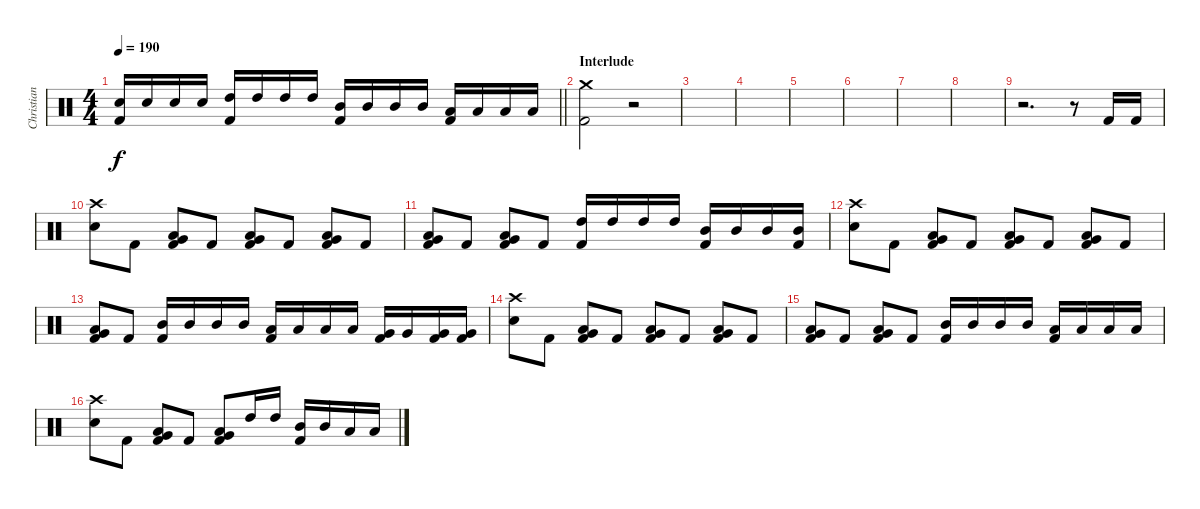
\track ("Christian" "Christian") {instrument percussion}
\staff {score}
\articulation defaults
\ts (4 4)
\tempo 190
\clef neutral
\barLineRight lightlight
\ks c
("Electric Snare (hit)" "Kick (hit) 2").16{dy f} "Electric Snare (hit)".16 "Electric Snare (hit)".16 "Electric Snare (hit)".16 ("High Tom (hit)" "Kick (hit) 2").16 "High Tom (hit)".16 "High Tom (hit)".16 "High Tom (hit)".16 ("Mid Tom (hit)" "Kick (hit) 2").16 "Mid Tom (hit)".16 "Mid Tom (hit)".16 "Mid Tom (hit)".16 ("Low Tom (hit)" "Kick (hit) 2").16 "Low Tom (hit)".16 "Low Tom (hit)".16 "Low Tom (hit)".16 |
\section ("" "Interlude")
("Crash medium (hit)" "Kick (hit) 2").2 r.2 |
|
|
|
|
|
|
r.2{d} r.8 "Kick (hit) 2".16 "Kick (hit) 2".16 |
("Crash high (hit)" "Electric Snare (hit)").8 "Kick (hit) 2".8 ("Low Tom (hit)" "Very Low Tom (hit)" "Kick (hit) 2").8 "Kick (hit) 2".8 ("Low Tom (hit)" "Very Low Tom (hit)" "Kick (hit) 2").8 "Kick (hit) 2".8 ("Low Tom (hit)" "Very Low Tom (hit)" "Kick (hit) 2").8 "Kick (hit) 2".8 |
("Low Tom (hit)" "Very Low Tom (hit)" "Kick (hit) 2").8 "Kick (hit) 2".8 ("Low Tom (hit)" "Very Low Tom (hit)" "Kick (hit) 2").8 "Kick (hit) 2".8 ("High Tom (hit)" "Kick (hit) 2").16 "High Tom (hit)".16 "High Tom (hit)".16 "High Tom (hit)".16 ("Mid Tom (hit)" "Kick (hit) 2").16 "Mid Tom (hit)".16 "Mid Tom (hit)".16 ("Mid Tom (hit)" "Kick (hit) 2").16 |
("Crash high (hit)" "Electric Snare (hit)").8 "Kick (hit) 2".8 ("Low Tom (hit)" "Very Low Tom (hit)" "Kick (hit) 2").8 "Kick (hit) 2".8 ("Low Tom (hit)" "Very Low Tom (hit)" "Kick (hit) 2").8 "Kick (hit) 2".8 ("Low Tom (hit)" "Very Low Tom (hit)" "Kick (hit) 2").8 "Kick (hit) 2".8 |
("Low Tom (hit)" "Very Low Tom (hit)" "Kick (hit) 2").8 "Kick (hit) 2".8 ("Mid Tom (hit)" "Kick (hit) 2").16 "Mid Tom (hit)".16 "Mid Tom (hit)".16 "Mid Tom (hit)".16 ("Low Tom (hit)" "Kick (hit) 2").16 "Low Tom (hit)".16 "Low Tom (hit)".16 "Low Tom (hit)".16 ("Very Low Tom (hit)" "Kick (hit) 2").16 "Very Low Tom (hit)".16 ("Very Low Tom (hit)" "Kick (hit) 2").16 ("Very Low Tom (hit)" "Kick (hit) 2").16 |
("Crash high (hit)" "Electric Snare (hit)").8 "Kick (hit) 2".8 ("Low Tom (hit)" "Very Low Tom (hit)" "Kick (hit) 2").8 "Kick (hit) 2".8 ("Low Tom (hit)" "Very Low Tom (hit)" "Kick (hit) 2").8 "Kick (hit) 2".8 ("Low Tom (hit)" "Very Low Tom (hit)" "Kick (hit) 2").8 "Kick (hit) 2".8 |
("Low Tom (hit)" "Very Low Tom (hit)" "Kick (hit) 2").8 "Kick (hit) 2".8 ("Low Tom (hit)" "Very Low Tom (hit)" "Kick (hit) 2").8 "Kick (hit) 2".8 ("Mid Tom (hit)" "Kick (hit) 2").16 "Mid Tom (hit)".16 "Mid Tom (hit)".16 "Mid Tom (hit)".16 ("Low Tom (hit)" "Kick (hit) 2").16 "Low Tom (hit)".16 "Low Tom (hit)".16 "Low Tom (hit)".16 |
("Crash high (hit)" "Electric Snare (hit)").8 "Kick (hit) 2".8 ("Low Tom (hit)" "Very Low Tom (hit)" "Kick (hit) 2").8 "Kick (hit) 2".8 ("Low Tom (hit)" "Very Low Tom (hit)" "Kick (hit) 2").8 "High Tom (hit)".16 "High Tom (hit)".16 ("Mid Tom (hit)" "Kick (hit) 2").16 "Mid Tom (hit)".16 "Low Tom (hit)".16 "Low Tom (hit)".16
